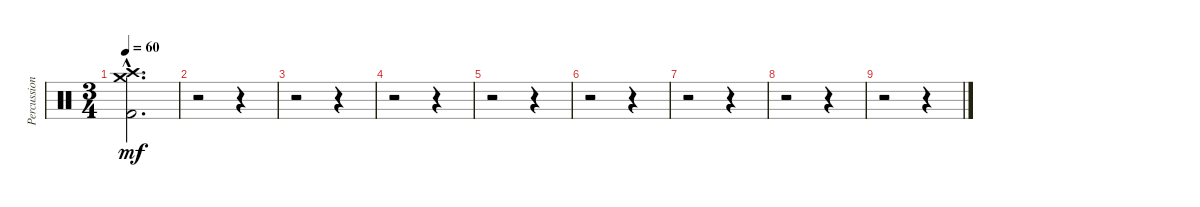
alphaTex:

\track ("Percussion" "Percussion") {instrument percussion}
\staff {score}
\articulation defaults
\ts (3 4)
\tempo 60
\clef neutral
\ks c
("Crash high (hit)"{hac} "Crash medium (hit)"{hac} "Kick (hit) 2"{hac}).2{d dy mf} |
r.2 r.4 |
r.2 r.4 |
r.2 r.4 |
r.2 r.4 |
r.2 r.4 |
r.2 r.4 |
r.2 r.4 |
r.2 r.4
